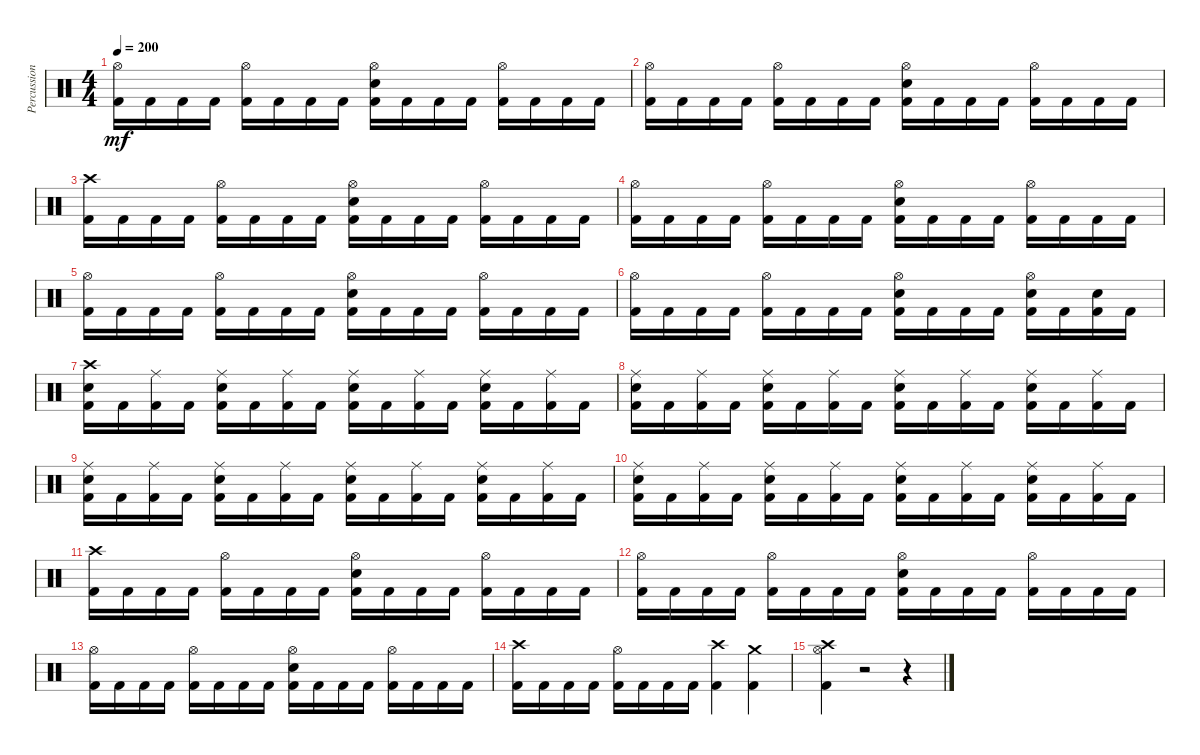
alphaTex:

\track ("Percussions" "Percussion") {instrument percussion}
\staff {score}
\articulation defaults
\ts (4 4)
\tempo 200
\clef neutral
\ks c
("Hi-Hat (open)" "Kick (hit) 2").16{dy mf} "Kick (hit) 2".16 "Kick (hit) 2".16 "Kick (hit) 2".16 ("Hi-Hat (open)" "Kick (hit) 2").16 "Kick (hit) 2".16 "Kick (hit) 2".16 "Kick (hit) 2".16 ("Hi-Hat (open)" "Electric Snare (hit)" "Kick (hit) 2").16 "Kick (hit) 2".16 "Kick (hit) 2".16 "Kick (hit) 2".16 ("Hi-Hat (open)" "Kick (hit) 2").16 "Kick (hit) 2".16 "Kick (hit) 2".16 "Kick (hit) 2".16 |
("Hi-Hat (open)" "Kick (hit) 2").16 "Kick (hit) 2".16 "Kick (hit) 2".16 "Kick (hit) 2".16 ("Hi-Hat (open)" "Kick (hit) 2").16 "Kick (hit) 2".16 "Kick (hit) 2".16 "Kick (hit) 2".16 ("Hi-Hat (open)" "Electric Snare (hit)" "Kick (hit) 2").16 "Kick (hit) 2".16 "Kick (hit) 2".16 "Kick (hit) 2".16 ("Hi-Hat (open)" "Kick (hit) 2").16 "Kick (hit) 2".16 "Kick (hit) 2".16 "Kick (hit) 2".16 |
("Crash high (hit)" "Kick (hit) 2").16 "Kick (hit) 2".16 "Kick (hit) 2".16 "Kick (hit) 2".16 ("Hi-Hat (open)" "Kick (hit) 2").16 "Kick (hit) 2".16 "Kick (hit) 2".16 "Kick (hit) 2".16 ("Hi-Hat (open)" "Electric Snare (hit)" "Kick (hit) 2").16 "Kick (hit) 2".16 "Kick (hit) 2".16 "Kick (hit) 2".16 ("Hi-Hat (open)" "Kick (hit) 2").16 "Kick (hit) 2".16 "Kick (hit) 2".16 "Kick (hit) 2".16 |
("Hi-Hat (open)" "Kick (hit) 2").16 "Kick (hit) 2".16 "Kick (hit) 2".16 "Kick (hit) 2".16 ("Hi-Hat (open)" "Kick (hit) 2").16 "Kick (hit) 2".16 "Kick (hit) 2".16 "Kick (hit) 2".16 ("Hi-Hat (open)" "Electric Snare (hit)" "Kick (hit) 2").16 "Kick (hit) 2".16 "Kick (hit) 2".16 "Kick (hit) 2".16 ("Hi-Hat (open)" "Kick (hit) 2").16 "Kick (hit) 2".16 "Kick (hit) 2".16 "Kick (hit) 2".16 |
("Hi-Hat (open)" "Kick (hit) 2").16 "Kick (hit) 2".16 "Kick (hit) 2".16 "Kick (hit) 2".16 ("Hi-Hat (open)" "Kick (hit) 2").16 "Kick (hit) 2".16 "Kick (hit) 2".16 "Kick (hit) 2".16 ("Hi-Hat (open)" "Electric Snare (hit)" "Kick (hit) 2").16 "Kick (hit) 2".16 "Kick (hit) 2".16 "Kick (hit) 2".16 ("Hi-Hat (open)" "Kick (hit) 2").16 "Kick (hit) 2".16 "Kick (hit) 2".16 "Kick (hit) 2".16 |
("Hi-Hat (open)" "Kick (hit) 2").16 "Kick (hit) 2".16 "Kick (hit) 2".16 "Kick (hit) 2".16 ("Hi-Hat (open)" "Kick (hit) 2").16 "Kick (hit) 2".16 "Kick (hit) 2".16 "Kick (hit) 2".16 ("Hi-Hat (open)" "Electric Snare (hit)" "Kick (hit) 2").16 "Kick (hit) 2".16 "Kick (hit) 2".16 "Kick (hit) 2".16 ("Hi-Hat (open)" "Electric Snare (hit)" "Kick (hit) 2").16 "Kick (hit) 2".16 ("Electric Snare (hit)" "Kick (hit) 2").16 "Kick (hit) 2".16 |
("Crash high (hit)" "Electric Snare (hit)" "Kick (hit) 2").16 "Kick (hit) 2".16 ("Ride (middle)" "Kick (hit) 2").16 "Kick (hit) 2".16 ("Ride (middle)" "Electric Snare (hit)" "Kick (hit) 2").16 "Kick (hit) 2".16 ("Ride (middle)" "Kick (hit) 2").16 "Kick (hit) 2".16 ("Ride (middle)" "Electric Snare (hit)" "Kick (hit) 2").16 "Kick (hit) 2".16 ("Ride (middle)" "Kick (hit) 2").16 "Kick (hit) 2".16 ("Ride (middle)" "Electric Snare (hit)" "Kick (hit) 2").16 "Kick (hit) 2".16 ("Ride (middle)" "Kick (hit) 2").16 "Kick (hit) 2".16 |
("Ride (middle)" "Electric Snare (hit)" "Kick (hit) 2").16 "Kick (hit) 2".16 ("Ride (middle)" "Kick (hit) 2").16 "Kick (hit) 2".16 ("Ride (middle)" "Electric Snare (hit)" "Kick (hit) 2").16 "Kick (hit) 2".16 ("Ride (middle)" "Kick (hit) 2").16 "Kick (hit) 2".16 ("Ride (middle)" "Electric Snare (hit)" "Kick (hit) 2").16 "Kick (hit) 2".16 ("Ride (middle)" "Kick (hit) 2").16 "Kick (hit) 2".16 ("Ride (middle)" "Electric Snare (hit)" "Kick (hit) 2").16 "Kick (hit) 2".16 ("Ride (middle)" "Kick (hit) 2").16 "Kick (hit) 2".16 |
("Ride (middle)" "Electric Snare (hit)" "Kick (hit) 2").16 "Kick (hit) 2".16 ("Ride (middle)" "Kick (hit) 2").16 "Kick (hit) 2".16 ("Ride (middle)" "Electric Snare (hit)" "Kick (hit) 2").16 "Kick (hit) 2".16 ("Ride (middle)" "Kick (hit) 2").16 "Kick (hit) 2".16 ("Ride (middle)" "Electric Snare (hit)" "Kick (hit) 2").16 "Kick (hit) 2".16 ("Ride (middle)" "Kick (hit) 2").16 "Kick (hit) 2".16 ("Ride (middle)" "Electric Snare (hit)" "Kick (hit) 2").16 "Kick (hit) 2".16 ("Ride (middle)" "Kick (hit) 2").16 "Kick (hit) 2".16 |
("Ride (middle)" "Electric Snare (hit)" "Kick (hit) 2").16 "Kick (hit) 2".16 ("Ride (middle)" "Kick (hit) 2").16 "Kick (hit) 2".16 ("Ride (middle)" "Electric Snare (hit)" "Kick (hit) 2").16 "Kick (hit) 2".16 ("Ride (middle)" "Kick (hit) 2").16 "Kick (hit) 2".16 ("Ride (middle)" "Electric Snare (hit)" "Kick (hit) 2").16 "Kick (hit) 2".16 ("Ride (middle)" "Kick (hit) 2").16 "Kick (hit) 2".16 ("Ride (middle)" "Electric Snare (hit)" "Kick (hit) 2").16 "Kick (hit) 2".16 ("Ride (middle)" "Kick (hit) 2").16 "Kick (hit) 2".16 |
("Crash high (hit)" "Kick (hit) 2").16 "Kick (hit) 2".16 "Kick (hit) 2".16 "Kick (hit) 2".16 ("Hi-Hat (open)" "Kick (hit) 2").16 "Kick (hit) 2".16 "Kick (hit) 2".16 "Kick (hit) 2".16 ("Hi-Hat (open)" "Electric Snare (hit)" "Kick (hit) 2").16 "Kick (hit) 2".16 "Kick (hit) 2".16 "Kick (hit) 2".16 ("Hi-Hat (open)" "Kick (hit) 2").16 "Kick (hit) 2".16 "Kick (hit) 2".16 "Kick (hit) 2".16 |
("Hi-Hat (open)" "Kick (hit) 2").16 "Kick (hit) 2".16 "Kick (hit) 2".16 "Kick (hit) 2".16 ("Hi-Hat (open)" "Kick (hit) 2").16 "Kick (hit) 2".16 "Kick (hit) 2".16 "Kick (hit) 2".16 ("Hi-Hat (open)" "Electric Snare (hit)" "Kick (hit) 2").16 "Kick (hit) 2".16 "Kick (hit) 2".16 "Kick (hit) 2".16 ("Hi-Hat (open)" "Kick (hit) 2").16 "Kick (hit) 2".16 "Kick (hit) 2".16 "Kick (hit) 2".16 |
("Hi-Hat (open)" "Kick (hit) 2").16 "Kick (hit) 2".16 "Kick (hit) 2".16 "Kick (hit) 2".16 ("Hi-Hat (open)" "Kick (hit) 2").16 "Kick (hit) 2".16 "Kick (hit) 2".16 "Kick (hit) 2".16 ("Hi-Hat (open)" "Electric Snare (hit)" "Kick (hit) 2").16 "Kick (hit) 2".16 "Kick (hit) 2".16 "Kick (hit) 2".16 ("Hi-Hat (open)" "Kick (hit) 2").16 "Kick (hit) 2".16 "Kick (hit) 2".16 "Kick (hit) 2".16 |
("Crash high (hit)" "Kick (hit) 2").16 "Kick (hit) 2".16 "Kick (hit) 2".16 "Kick (hit) 2".16 ("Hi-Hat (open)" "Kick (hit) 2").16 "Kick (hit) 2".16 "Kick (hit) 2".16 "Kick (hit) 2".16 ("Crash high (hit)" "Kick (hit) 2").4 ("Crash medium (hit)" "Kick (hit) 2").4 |
("Crash high (hit)" "Hi-Hat (open)" "Kick (hit) 2").4 r.2 r.4
